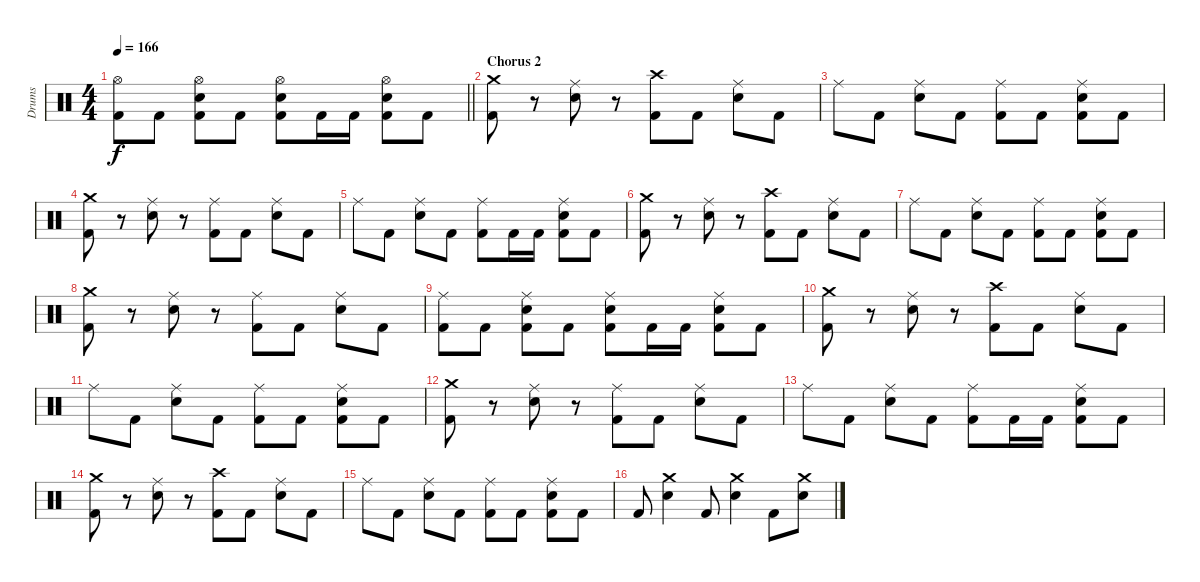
\track ("Drums" "Drums") {instrument percussion}
\staff {score}
\articulation defaults
\ts (4 4)
\tempo 166
\clef neutral
\barLineRight lightlight
\ks c
("Hi-Hat (open)" "Kick (hit) 2").8{dy f} "Kick (hit) 2".8 ("Hi-Hat (open)" "Electric Snare (hit)" "Kick (hit) 2").8 "Kick (hit) 2".8 ("Hi-Hat (open)" "Electric Snare (hit)" "Kick (hit) 2").8 "Kick (hit) 2".16 "Kick (hit) 2".16 ("Hi-Hat (open)" "Electric Snare (hit)" "Kick (hit) 2").8 "Kick (hit) 2".8 |
\section ("" "Chorus 2")
("Crash medium (hit)" "Kick (hit) 2").8 r.8 ("Ride (middle)" "Electric Snare (hit)").8 r.8 ("Crash high (hit)" "Kick (hit) 2").8 "Kick (hit) 2".8 ("Ride (middle)" "Electric Snare (hit)").8 "Kick (hit) 2".8 |
"Ride (middle)".8 "Kick (hit) 2".8 ("Ride (middle)" "Electric Snare (hit)").8 "Kick (hit) 2".8 ("Ride (middle)" "Kick (hit) 2").8 "Kick (hit) 2".8 ("Ride (middle)" "Electric Snare (hit)" "Kick (hit) 2").8 "Kick (hit) 2".8 |
("Crash medium (hit)" "Kick (hit) 2").8 r.8 ("Ride (middle)" "Electric Snare (hit)").8 r.8 ("Ride (middle)" "Kick (hit) 2").8 "Kick (hit) 2".8 ("Ride (middle)" "Electric Snare (hit)").8 "Kick (hit) 2".8 |
"Ride (middle)".8 "Kick (hit) 2".8 ("Ride (middle)" "Electric Snare (hit)").8 "Kick (hit) 2".8 ("Ride (middle)" "Kick (hit) 2").8 "Kick (hit) 2".16 "Kick (hit) 2".16 ("Ride (middle)" "Electric Snare (hit)" "Kick (hit) 2").8 "Kick (hit) 2".8 |
("Crash medium (hit)" "Kick (hit) 2").8 r.8 ("Ride (middle)" "Electric Snare (hit)").8 r.8 ("Crash high (hit)" "Kick (hit) 2").8 "Kick (hit) 2".8 ("Ride (middle)" "Electric Snare (hit)").8 "Kick (hit) 2".8 |
"Ride (middle)".8 "Kick (hit) 2".8 ("Ride (middle)" "Electric Snare (hit)").8 "Kick (hit) 2".8 ("Ride (middle)" "Kick (hit) 2").8 "Kick (hit) 2".8 ("Ride (middle)" "Electric Snare (hit)" "Kick (hit) 2").8 "Kick (hit) 2".8 |
("Crash medium (hit)" "Kick (hit) 2").8 r.8 ("Ride (middle)" "Electric Snare (hit)").8 r.8 ("Ride (middle)" "Kick (hit) 2").8 "Kick (hit) 2".8 ("Ride (middle)" "Electric Snare (hit)").8 "Kick (hit) 2".8 |
("Ride (middle)" "Kick (hit) 2").8 "Kick (hit) 2".8 ("Ride (middle)" "Electric Snare (hit)" "Kick (hit) 2").8 "Kick (hit) 2".8 ("Ride (middle)" "Electric Snare (hit)" "Kick (hit) 2").8 "Kick (hit) 2".16 "Kick (hit) 2".16 ("Ride (middle)" "Electric Snare (hit)" "Kick (hit) 2").8 "Kick (hit) 2".8 |
("Crash medium (hit)" "Kick (hit) 2").8 r.8 ("Ride (middle)" "Electric Snare (hit)").8 r.8 ("Crash high (hit)" "Kick (hit) 2").8 "Kick (hit) 2".8 ("Ride (middle)" "Electric Snare (hit)").8 "Kick (hit) 2".8 |
"Ride (middle)".8 "Kick (hit) 2".8 ("Ride (middle)" "Electric Snare (hit)").8 "Kick (hit) 2".8 ("Ride (middle)" "Kick (hit) 2").8 "Kick (hit) 2".8 ("Ride (middle)" "Electric Snare (hit)" "Kick (hit) 2").8 "Kick (hit) 2".8 |
("Crash medium (hit)" "Kick (hit) 2").8 r.8 ("Ride (middle)" "Electric Snare (hit)").8 r.8 ("Ride (middle)" "Kick (hit) 2").8 "Kick (hit) 2".8 ("Ride (middle)" "Electric Snare (hit)").8 "Kick (hit) 2".8 |
"Ride (middle)".8 "Kick (hit) 2".8 ("Ride (middle)" "Electric Snare (hit)").8 "Kick (hit) 2".8 ("Ride (middle)" "Kick (hit) 2").8 "Kick (hit) 2".16 "Kick (hit) 2".16 ("Ride (middle)" "Electric Snare (hit)" "Kick (hit) 2").8 "Kick (hit) 2".8 |
("Crash medium (hit)" "Kick (hit) 2").8 r.8 ("Ride (middle)" "Electric Snare (hit)").8 r.8 ("Crash high (hit)" "Kick (hit) 2").8 "Kick (hit) 2".8 ("Ride (middle)" "Electric Snare (hit)").8 "Kick (hit) 2".8 |
"Ride (middle)".8 "Kick (hit) 2".8 ("Ride (middle)" "Electric Snare (hit)").8 "Kick (hit) 2".8 ("Ride (middle)" "Kick (hit) 2").8 "Kick (hit) 2".8 ("Ride (middle)" "Electric Snare (hit)" "Kick (hit) 2").8 "Kick (hit) 2".8 |
"Kick (hit) 2".8 ("Crash medium (hit)" "Electric Snare (hit)").4 "Kick (hit) 2".8 ("Crash medium (hit)" "Electric Snare (hit)").4 "Kick (hit) 2".8 ("Crash medium (hit)" "Electric Snare (hit)").8
